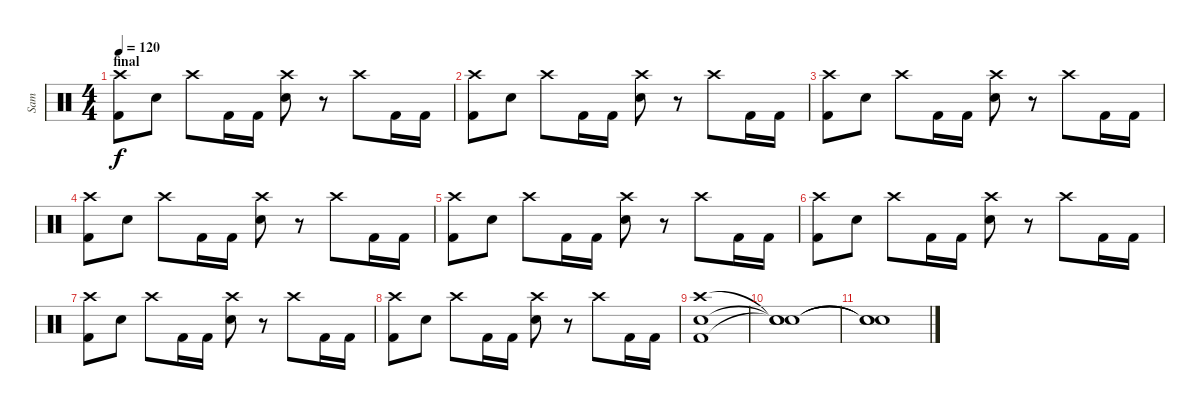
\track ("Sam" "Sam") {instrument percussion}
\staff {score}
\articulation defaults
\ts (4 4)
\section ("" "final")
\tempo 120
\clef neutral
\ks c
("Crash high (hit)" "Kick (hit) 2").8{dy f} "Electric Snare (hit)".8 "Crash high (hit)".8 "Kick (hit) 2".16 "Kick (hit) 2".16 ("Crash high (hit)" "Electric Snare (hit)").8 r.8 "Crash high (hit)".8 "Kick (hit) 2".16 "Kick (hit) 2".16 |
("Crash high (hit)" "Kick (hit) 2").8 "Electric Snare (hit)".8 "Crash high (hit)".8 "Kick (hit) 2".16 "Kick (hit) 2".16 ("Crash high (hit)" "Electric Snare (hit)").8 r.8 "Crash high (hit)".8 "Kick (hit) 2".16 "Kick (hit) 2".16 |
("Crash high (hit)" "Kick (hit) 2").8 "Electric Snare (hit)".8 "Crash high (hit)".8 "Kick (hit) 2".16 "Kick (hit) 2".16 ("Crash high (hit)" "Electric Snare (hit)").8 r.8 "Crash high (hit)".8 "Kick (hit) 2".16 "Kick (hit) 2".16 |
("Crash high (hit)" "Kick (hit) 2").8 "Electric Snare (hit)".8 "Crash high (hit)".8 "Kick (hit) 2".16 "Kick (hit) 2".16 ("Crash high (hit)" "Electric Snare (hit)").8 r.8 "Crash high (hit)".8 "Kick (hit) 2".16 "Kick (hit) 2".16 |
("Crash high (hit)" "Kick (hit) 2").8 "Electric Snare (hit)".8 "Crash high (hit)".8 "Kick (hit) 2".16 "Kick (hit) 2".16 ("Crash high (hit)" "Electric Snare (hit)").8 r.8 "Crash high (hit)".8 "Kick (hit) 2".16 "Kick (hit) 2".16 |
("Crash high (hit)" "Kick (hit) 2").8 "Electric Snare (hit)".8 "Crash high (hit)".8 "Kick (hit) 2".16 "Kick (hit) 2".16 ("Crash high (hit)" "Electric Snare (hit)").8 r.8 "Crash high (hit)".8 "Kick (hit) 2".16 "Kick (hit) 2".16 |
("Crash high (hit)" "Kick (hit) 2").8 "Electric Snare (hit)".8 "Crash high (hit)".8 "Kick (hit) 2".16 "Kick (hit) 2".16 ("Crash high (hit)" "Electric Snare (hit)").8 r.8 "Crash high (hit)".8 "Kick (hit) 2".16 "Kick (hit) 2".16 |
("Crash high (hit)" "Kick (hit) 2").8 "Electric Snare (hit)".8 "Crash high (hit)".8 "Kick (hit) 2".16 "Kick (hit) 2".16 ("Crash high (hit)" "Electric Snare (hit)").8 r.8 "Crash high (hit)".8 "Kick (hit) 2".16 "Kick (hit) 2".16 |
("Crash high (hit)" "Electric Snare (hit)" "Kick (hit) 2").1 |
("Snare (hit)"{t} "Snare (hit)"{t} "Snare (hit)"{t}).1 |
("Snare (hit)"{t} "Snare (hit)"{t} "Snare (hit)"{t}).1
